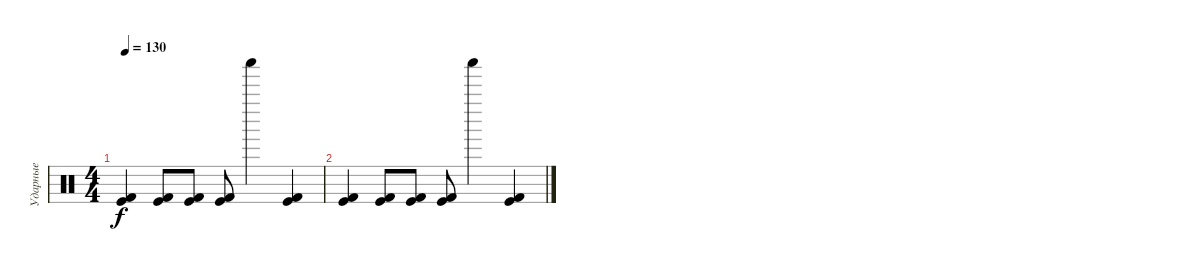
\track ("Ударные" "Ударные") {instrument percussion}
\staff {score}
\articulation defaults
\ts (4 4)
\tempo 130
\clef neutral
\ks c
("Kick (hit)" "Kick (hit) 2").4{dy f} ("Kick (hit)" "Kick (hit) 2").8 ("Kick (hit)" "Kick (hit) 2").8 ("Kick (hit)" "Kick (hit) 2").8 "Shaker (hit)".4 ("Kick (hit)" "Kick (hit) 2").4 |
("Kick (hit)" "Kick (hit) 2").4 ("Kick (hit)" "Kick (hit) 2").8 ("Kick (hit)" "Kick (hit) 2").8 ("Kick (hit)" "Kick (hit) 2").8 "Shaker (hit)".4 ("Kick (hit)" "Kick (hit) 2").4
